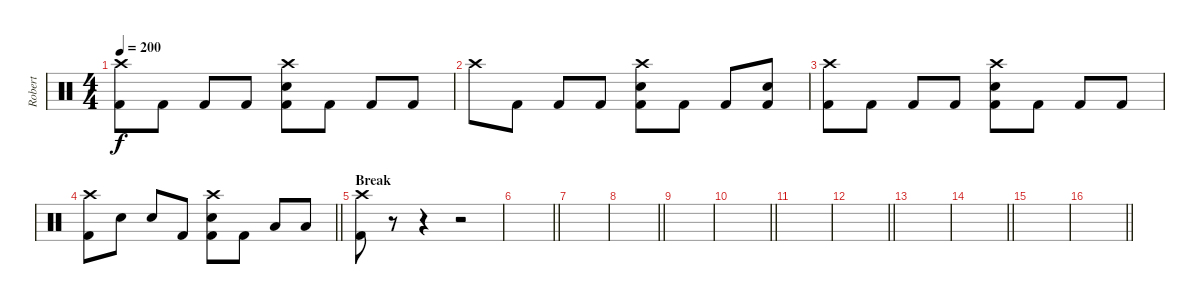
\track ("Robert" "Robert") {instrument percussion}
\staff {score}
\articulation defaults
\ts (4 4)
\tempo 200
\clef neutral
\ks c
("Crash high (hit)" "Kick (hit) 2").8{dy f} "Kick (hit) 2".8 "Kick (hit) 2".8 "Kick (hit) 2".8 ("Crash high (hit)" "Electric Snare (hit)" "Kick (hit) 2").8 "Kick (hit) 2".8 "Kick (hit) 2".8 "Kick (hit) 2".8 |
"Crash high (hit)".8 "Kick (hit) 2".8 "Kick (hit) 2".8 "Kick (hit) 2".8 ("Crash high (hit)" "Electric Snare (hit)" "Kick (hit) 2").8 "Kick (hit) 2".8 "Kick (hit) 2".8 ("Electric Snare (hit)" "Kick (hit) 2").8 |
("Crash high (hit)" "Kick (hit) 2").8 "Kick (hit) 2".8 "Kick (hit) 2".8 "Kick (hit) 2".8 ("Crash high (hit)" "Electric Snare (hit)" "Kick (hit) 2").8 "Kick (hit) 2".8 "Kick (hit) 2".8 "Kick (hit) 2".8 |
\barLineRight lightlight
("Crash high (hit)" "Kick (hit) 2").8 "Electric Snare (hit)".8 "Electric Snare (hit)".8 "Kick (hit) 2".8 ("Crash high (hit)" "Electric Snare (hit)" "Kick (hit) 2").8 "Kick (hit) 2".8 "Low Tom (hit)".8 "Low Tom (hit)".8 |
\section ("" "Break")
("Crash high (hit)" "Kick (hit) 2").8 r.8 r.4 r.2 |
\barLineRight lightlight
|
|
\barLineRight lightlight
|
|
\barLineRight lightlight
|
|
\barLineRight lightlight
|
|
\barLineRight lightlight
|
|
\barLineRight lightlight
